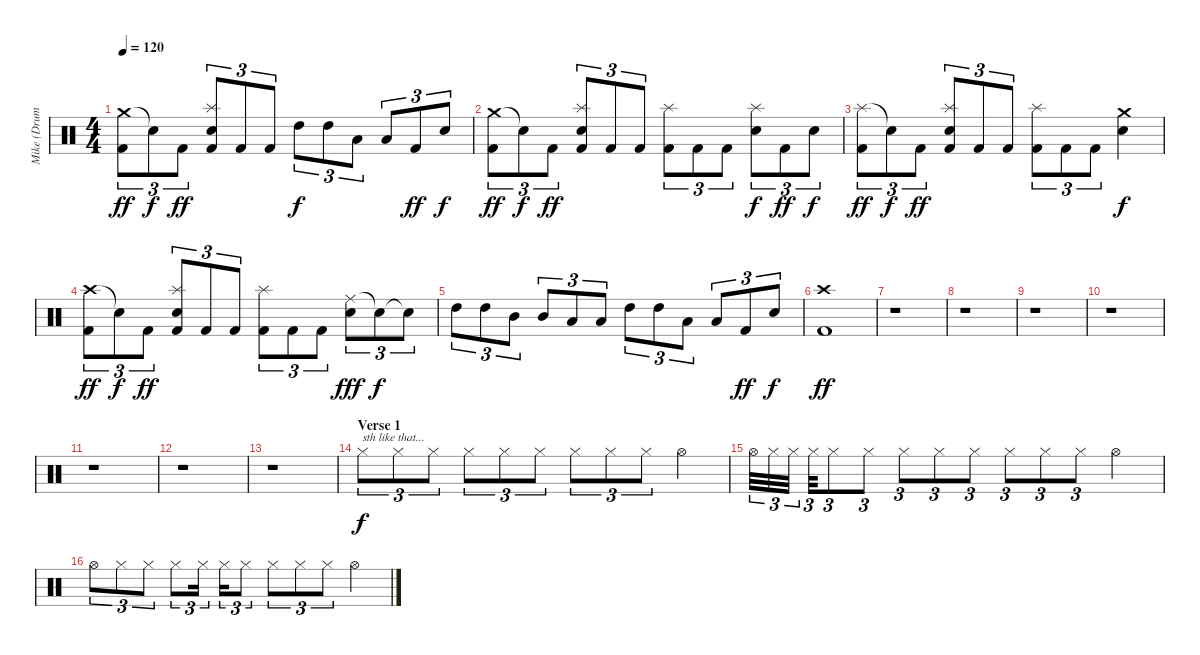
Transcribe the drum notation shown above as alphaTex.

\track ("Mike (Drums)" "Mike (Drum") {instrument percussion}
\staff {score}
\articulation defaults
\ts (4 4)
\tempo 120
\clef neutral
\ks c
("Crash medium (hit)" "Kick (hit) 2").8{tu (3 2) dy ff} "Snare (hit)"{t}.8{tu (3 2) dy f} "Kick (hit) 2".8{tu (3 2) dy ff} ("Splash (hit)" "Electric Snare (hit)" "Kick (hit) 2").8{tu (3 2)} "Kick (hit) 2".8{tu (3 2)} "Kick (hit) 2".8{tu (3 2)} "High Tom (hit)".8{tu (3 2) dy f} "High Tom (hit)".8{tu (3 2)} "Low Tom (hit)".8{tu (3 2)} "Low Tom (hit)".8{tu (3 2)} "Kick (hit) 2".8{tu (3 2) dy ff} "Snare (hit) 2".8{tu (3 2) dy f} |
("Crash medium (hit)" "Kick (hit) 2").8{tu (3 2) dy ff} "Snare (hit)"{t}.8{tu (3 2) dy f} "Kick (hit) 2".8{tu (3 2) dy ff} ("Splash (hit)" "Electric Snare (hit)" "Kick (hit) 2").8{tu (3 2)} "Kick (hit) 2".8{tu (3 2)} "Kick (hit) 2".8{tu (3 2)} ("Splash (hit)" "Kick (hit) 2").8{tu (3 2)} "Kick (hit) 2".8{tu (3 2)} "Kick (hit) 2".8{tu (3 2)} ("Splash (hit)" "Electric Snare (hit)").8{tu (3 2) dy f} "Kick (hit) 2".8{tu (3 2) dy ff} "Snare (hit) 2".8{tu (3 2) dy f} |
("Splash (hit)" "Kick (hit) 2").8{tu (3 2) dy ff} "Snare (hit)"{t}.8{tu (3 2) dy f} "Kick (hit) 2".8{tu (3 2) dy ff} ("Splash (hit)" "Electric Snare (hit)" "Kick (hit) 2").8{tu (3 2)} "Kick (hit) 2".8{tu (3 2)} "Kick (hit) 2".8{tu (3 2)} ("Splash (hit)" "Kick (hit) 2").8{tu (3 2)} "Kick (hit) 2".8{tu (3 2)} "Kick (hit) 2".8{tu (3 2)} ("Crash medium (hit)" "Electric Snare (hit)").4{dy f} |
("Crash high (hit)" "Kick (hit) 2").8{tu (3 2) dy ff} "Snare (hit)"{t}.8{tu (3 2) dy f} "Kick (hit) 2".8{tu (3 2) dy ff} ("Splash (hit)" "Electric Snare (hit)" "Kick (hit) 2").8{tu (3 2)} "Kick (hit) 2".8{tu (3 2)} "Kick (hit) 2".8{tu (3 2)} ("Splash (hit)" "Kick (hit) 2").8{tu (3 2)} "Kick (hit) 2".8{tu (3 2)} "Kick (hit) 2".8{tu (3 2)} ("Ride (middle)" "Electric Snare (hit)").8{tu (3 2) dy fff} "Snare (hit)"{t}.8{tu (3 2) dy f} "Snare (hit)"{t}.8{tu (3 2)} |
"High Tom (hit)".8{tu (3 2)} "High Tom (hit)".8{tu (3 2)} "Mid Tom (hit)".8{tu (3 2)} "Mid Tom (hit)".8{tu (3 2)} "Low Tom (hit)".8{tu (3 2)} "Low Tom (hit)".8{tu (3 2)} "High Tom (hit)".8{tu (3 2)} "High Tom (hit)".8{tu (3 2)} "Low Tom (hit)".8{tu (3 2)} "Low Tom (hit)".8{tu (3 2)} "Kick (hit) 2".8{tu (3 2) dy ff} "Snare (hit) 2".8{tu (3 2) dy f} |
("Crash high (hit)" "Kick (hit) 2").1{dy ff} |
r.1 |
r.1 |
r.1 |
r.1 |
r.1 |
r.1 |
r.1 |
\section ("" "Verse 1")
"Hi-Hat (closed)".8{tu (3 2) txt "sth like that..." dy f} "Hi-Hat (closed)".8{tu (3 2)} "Hi-Hat (closed)".8{tu (3 2)} "Hi-Hat (closed)".8{tu (3 2)} "Hi-Hat (closed)".8{tu (3 2)} "Hi-Hat (closed)".8{tu (3 2)} "Hi-Hat (closed)".8{tu (3 2)} "Hi-Hat (closed)".8{tu (3 2)} "Hi-Hat (closed)".8{tu (3 2)} "Hi-Hat (open)".4 |
"Hi-Hat (open)".32{tu (3 2)} "Hi-Hat (closed)".32{tu (3 2)} "Hi-Hat (closed)".32{tu (3 2)} "Hi-Hat (closed)".32{tu (3 2)} "Hi-Hat (closed)".8{tu (3 2)} "Hi-Hat (closed)".8{tu (3 2)} "Hi-Hat (closed)".8{tu (3 2)} "Hi-Hat (closed)".8{tu (3 2)} "Hi-Hat (closed)".8{tu (3 2)} "Hi-Hat (closed)".8{tu (3 2)} "Hi-Hat (closed)".8{tu (3 2)} "Hi-Hat (closed)".8{tu (3 2)} "Hi-Hat (open)".4 |
"Hi-Hat (open)".8{tu (3 2)} "Hi-Hat (closed)".8{tu (3 2)} "Hi-Hat (closed)".8{tu (3 2)} "Hi-Hat (closed)".8{tu (3 2)} "Hi-Hat (closed)".16{tu (3 2)} "Hi-Hat (closed)".16{tu (3 2)} "Hi-Hat (closed)".8{tu (3 2)} "Hi-Hat (closed)".8{tu (3 2)} "Hi-Hat (closed)".8{tu (3 2)} "Hi-Hat (closed)".8{tu (3 2)} "Hi-Hat (open)".4
